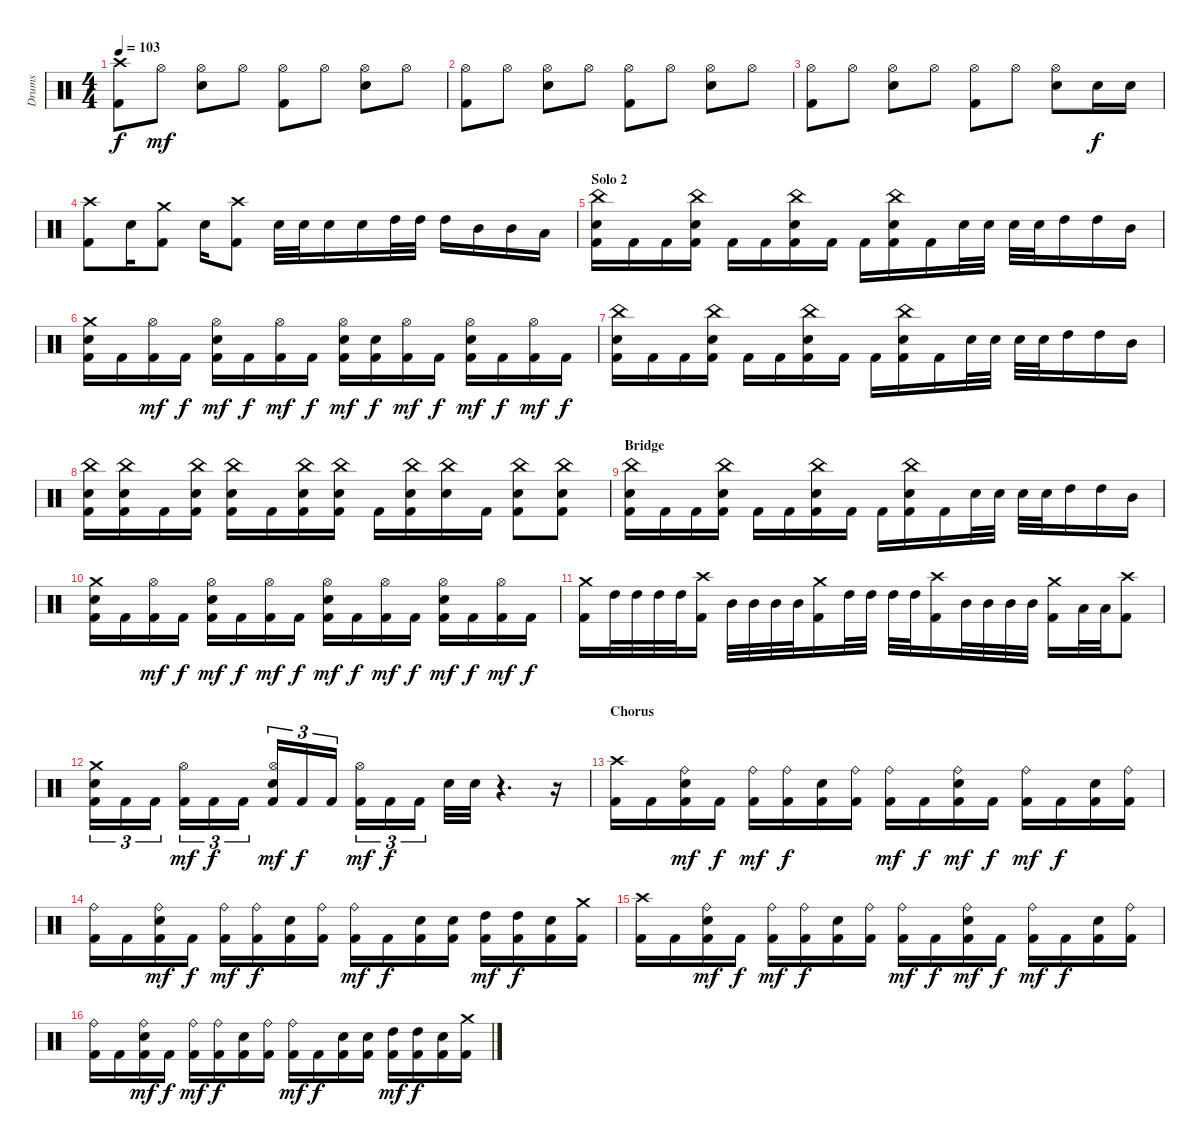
\track ("Drums" "Drums") {instrument percussion}
\staff {score}
\articulation defaults
\ts (4 4)
\tempo 103
\clef neutral
\ks c
("Crash high (hit)" "Kick (hit) 2").8{dy f} "Hi-Hat (open)".8{dy mf} ("Hi-Hat (open)" "Electric Snare (hit)").8 "Hi-Hat (open)".8 ("Hi-Hat (open)" "Kick (hit) 2").8 "Hi-Hat (open)".8 ("Hi-Hat (open)" "Electric Snare (hit)").8 "Hi-Hat (open)".8 |
("Hi-Hat (open)" "Kick (hit) 2").8 "Hi-Hat (open)".8 ("Hi-Hat (open)" "Electric Snare (hit)").8 "Hi-Hat (open)".8 ("Hi-Hat (open)" "Kick (hit) 2").8 "Hi-Hat (open)".8 ("Hi-Hat (open)" "Electric Snare (hit)").8 "Hi-Hat (open)".8 |
("Hi-Hat (open)" "Kick (hit) 2").8 "Hi-Hat (open)".8 ("Hi-Hat (open)" "Electric Snare (hit)").8 "Hi-Hat (open)".8 ("Hi-Hat (open)" "Kick (hit) 2").8 "Hi-Hat (open)".8 ("Hi-Hat (open)" "Electric Snare (hit)").8 "Electric Snare (hit)".16{dy f} "Electric Snare (hit)".16 |
("Crash high (hit)" "Kick (hit) 2").8 "Electric Snare (hit)".16 ("Crash medium (hit)" "Kick (hit) 2").8 "Electric Snare (hit)".16 ("Crash high (hit)" "Kick (hit) 2").8 "Electric Snare (hit)".32 "Electric Snare (hit)".32 "Electric Snare (hit)".16 "Electric Snare (hit)".16 "High Tom (hit)".32 "High Tom (hit)".32 "High Tom (hit)".16 "Mid Tom (hit)".16 "Mid Tom (hit)".16 "Low Tom (hit)".16 |
\section ("" "Solo 2")
("China (hit)" "Electric Snare (hit)" "Kick (hit) 2").16 "Kick (hit) 2".16 "Kick (hit) 2".16 ("China (hit)" "Electric Snare (hit)" "Kick (hit) 2").16 "Kick (hit) 2".16 "Kick (hit) 2".16 ("China (hit)" "Electric Snare (hit)" "Kick (hit) 2").16 "Kick (hit) 2".16 "Kick (hit) 2".16 ("China (hit)" "Electric Snare (hit)" "Kick (hit) 2").16 "Kick (hit) 2".16 "Electric Snare (hit)".32 "Electric Snare (hit)".32 "Electric Snare (hit)".32 "Electric Snare (hit)".32 "High Tom (hit)".16 "High Tom (hit)".16 "Mid Tom (hit)".16 |
("Crash medium (hit)" "Electric Snare (hit)" "Kick (hit) 2").16 "Kick (hit) 2".16 ("Hi-Hat (open)" "Kick (hit) 2").16{dy mf} "Kick (hit) 2".16{dy f} ("Hi-Hat (open)" "Electric Snare (hit)" "Kick (hit) 2").16{dy mf} "Kick (hit) 2".16{dy f} ("Hi-Hat (open)" "Kick (hit) 2").16{dy mf} "Kick (hit) 2".16{dy f} ("Hi-Hat (open)" "Electric Snare (hit)" "Kick (hit) 2").16{dy mf} ("Electric Snare (hit)" "Kick (hit) 2").16{dy f} ("Hi-Hat (open)" "Kick (hit) 2").16{dy mf} "Kick (hit) 2".16{dy f} ("Hi-Hat (open)" "Electric Snare (hit)" "Kick (hit) 2").16{dy mf} "Kick (hit) 2".16{dy f} ("Hi-Hat (open)" "Kick (hit) 2").16{dy mf} "Kick (hit) 2".16{dy f} |
("China (hit)" "Electric Snare (hit)" "Kick (hit) 2").16 "Kick (hit) 2".16 "Kick (hit) 2".16 ("China (hit)" "Electric Snare (hit)" "Kick (hit) 2").16 "Kick (hit) 2".16 "Kick (hit) 2".16 ("China (hit)" "Electric Snare (hit)" "Kick (hit) 2").16 "Kick (hit) 2".16 "Kick (hit) 2".16 ("China (hit)" "Electric Snare (hit)" "Kick (hit) 2").16 "Kick (hit) 2".16 "Electric Snare (hit)".32 "Electric Snare (hit)".32 "Electric Snare (hit)".32 "Electric Snare (hit)".32 "High Tom (hit)".16 "High Tom (hit)".16 "Mid Tom (hit)".16 |
("China (hit)" "Electric Snare (hit)" "Kick (hit) 2").16 ("China (hit)" "Electric Snare (hit)" "Kick (hit) 2").16 "Kick (hit) 2".16 ("China (hit)" "Electric Snare (hit)" "Kick (hit) 2").16 ("China (hit)" "Electric Snare (hit)" "Kick (hit) 2").16 "Kick (hit) 2".16 ("China (hit)" "Electric Snare (hit)" "Kick (hit) 2").16 ("China (hit)" "Electric Snare (hit)" "Kick (hit) 2").16 "Kick (hit) 2".16 ("China (hit)" "Electric Snare (hit)" "Kick (hit) 2").16 ("China (hit)" "Electric Snare (hit)").16 "Kick (hit) 2".16 ("China (hit)" "Electric Snare (hit)" "Kick (hit) 2").8 ("China (hit)" "Electric Snare (hit)" "Kick (hit) 2").8 |
\section ("" "Bridge")
("China (hit)" "Electric Snare (hit)" "Kick (hit) 2").16 "Kick (hit) 2".16 "Kick (hit) 2".16 ("China (hit)" "Electric Snare (hit)" "Kick (hit) 2").16 "Kick (hit) 2".16 "Kick (hit) 2".16 ("China (hit)" "Electric Snare (hit)" "Kick (hit) 2").16 "Kick (hit) 2".16 "Kick (hit) 2".16 ("China (hit)" "Electric Snare (hit)" "Kick (hit) 2").16 "Kick (hit) 2".16 "Electric Snare (hit)".32 "Electric Snare (hit)".32 "Electric Snare (hit)".32 "Electric Snare (hit)".32 "High Tom (hit)".16 "High Tom (hit)".16 "Mid Tom (hit)".16 |
("Crash medium (hit)" "Electric Snare (hit)" "Kick (hit) 2").16 "Kick (hit) 2".16 ("Hi-Hat (open)" "Kick (hit) 2").16{dy mf} "Kick (hit) 2".16{dy f} ("Hi-Hat (open)" "Electric Snare (hit)" "Kick (hit) 2").16{dy mf} "Kick (hit) 2".16{dy f} ("Hi-Hat (open)" "Kick (hit) 2").16{dy mf} "Kick (hit) 2".16{dy f} ("Hi-Hat (open)" "Electric Snare (hit)" "Kick (hit) 2").16{dy mf} "Kick (hit) 2".16{dy f} ("Hi-Hat (open)" "Kick (hit) 2").16{dy mf} "Kick (hit) 2".16{dy f} ("Hi-Hat (open)" "Electric Snare (hit)" "Kick (hit) 2").16{dy mf} "Kick (hit) 2".16{dy f} ("Hi-Hat (open)" "Kick (hit) 2").16{dy mf} "Kick (hit) 2".16{dy f} |
("Crash medium (hit)" "Kick (hit) 2").16 "High Tom (hit)".32 "High Tom (hit)".32 "High Tom (hit)".32 "High Tom (hit)".32 ("Crash high (hit)" "Kick (hit) 2").16 "Mid Tom (hit)".32 "Mid Tom (hit)".32 "Mid Tom (hit)".32 "Mid Tom (hit)".32 ("Crash medium (hit)" "Kick (hit) 2").16 "High Tom (hit)".32 "High Tom (hit)".32 "High Tom (hit)".32 "High Tom (hit)".32 ("Crash high (hit)" "Kick (hit) 2").16 "Mid Tom (hit)".32 "Mid Tom (hit)".32 "Mid Tom (hit)".32 "Mid Tom (hit)".32 ("Crash medium (hit)" "Kick (hit) 2").16 "Low Tom (hit)".32 "Low Tom (hit)".32 ("Crash high (hit)" "Kick (hit) 2").8 |
("Crash medium (hit)" "Electric Snare (hit)" "Kick (hit) 2").16{tu (3 2)} "Kick (hit) 2".16{tu (3 2)} "Kick (hit) 2".16{tu (3 2)} ("Hi-Hat (open)" "Kick (hit) 2").16{tu (3 2) dy mf} "Kick (hit) 2".16{tu (3 2) dy f} "Kick (hit) 2".16{tu (3 2)} ("Hi-Hat (open)" "Electric Snare (hit)" "Kick (hit) 2").16{tu (3 2) dy mf} "Kick (hit) 2".16{tu (3 2) dy f} "Kick (hit) 2".16{tu (3 2)} ("Hi-Hat (open)" "Kick (hit) 2").16{tu (3 2) dy mf} "Kick (hit) 2".16{tu (3 2) dy f} "Kick (hit) 2".16{tu (3 2)} "Electric Snare (hit)".32 "Electric Snare (hit)".32 r.4{d} r.16 |
\section ("" "Chorus")
("Crash high (hit)" "Kick (hit) 2").16 "Kick (hit) 2".16 ("Ride (bell)" "Electric Snare (hit)" "Kick (hit) 2").16{dy mf} "Kick (hit) 2".16{dy f} ("Ride (bell)" "Kick (hit) 2").16{dy mf} ("Ride (bell)" "Kick (hit) 2").16{dy f} ("Electric Snare (hit)" "Kick (hit) 2").16 ("Ride (bell)" "Kick (hit) 2").16 ("Ride (bell)" "Kick (hit) 2").16{dy mf} "Kick (hit) 2".16{dy f} ("Ride (bell)" "Electric Snare (hit)" "Kick (hit) 2").16{dy mf} "Kick (hit) 2".16{dy f} ("Ride (bell)" "Kick (hit) 2").16{dy mf} "Kick (hit) 2".16{dy f} ("Electric Snare (hit)" "Kick (hit) 2").16 ("Ride (bell)" "Kick (hit) 2").16 |
("Ride (bell)" "Kick (hit) 2").16 "Kick (hit) 2".16 ("Ride (bell)" "Electric Snare (hit)" "Kick (hit) 2").16{dy mf} "Kick (hit) 2".16{dy f} ("Ride (bell)" "Kick (hit) 2").16{dy mf} ("Ride (bell)" "Kick (hit) 2").16{dy f} ("Electric Snare (hit)" "Kick (hit) 2").16 ("Ride (bell)" "Kick (hit) 2").16 ("Ride (bell)" "Kick (hit) 2").16{dy mf} "Kick (hit) 2".16{dy f} ("Electric Snare (hit)" "Kick (hit) 2").16 ("Electric Snare (hit)" "Kick (hit) 2").16 ("High Tom (hit)" "Kick (hit) 2").16{dy mf} ("High Tom (hit)" "Kick (hit) 2").16{dy f} ("Electric Snare (hit)" "Kick (hit) 2").16 ("Crash medium (hit)" "Kick (hit) 2").16 |
("Crash high (hit)" "Kick (hit) 2").16 "Kick (hit) 2".16 ("Ride (bell)" "Electric Snare (hit)" "Kick (hit) 2").16{dy mf} "Kick (hit) 2".16{dy f} ("Ride (bell)" "Kick (hit) 2").16{dy mf} ("Ride (bell)" "Kick (hit) 2").16{dy f} ("Electric Snare (hit)" "Kick (hit) 2").16 ("Ride (bell)" "Kick (hit) 2").16 ("Ride (bell)" "Kick (hit) 2").16{dy mf} "Kick (hit) 2".16{dy f} ("Ride (bell)" "Electric Snare (hit)" "Kick (hit) 2").16{dy mf} "Kick (hit) 2".16{dy f} ("Ride (bell)" "Kick (hit) 2").16{dy mf} "Kick (hit) 2".16{dy f} ("Electric Snare (hit)" "Kick (hit) 2").16 ("Ride (bell)" "Kick (hit) 2").16 |
("Ride (bell)" "Kick (hit) 2").16 "Kick (hit) 2".16 ("Ride (bell)" "Electric Snare (hit)" "Kick (hit) 2").16{dy mf} "Kick (hit) 2".16{dy f} ("Ride (bell)" "Kick (hit) 2").16{dy mf} ("Ride (bell)" "Kick (hit) 2").16{dy f} ("Electric Snare (hit)" "Kick (hit) 2").16 ("Ride (bell)" "Kick (hit) 2").16 ("Ride (bell)" "Kick (hit) 2").16{dy mf} "Kick (hit) 2".16{dy f} ("Electric Snare (hit)" "Kick (hit) 2").16 ("Electric Snare (hit)" "Kick (hit) 2").16 ("High Tom (hit)" "Kick (hit) 2").16{dy mf} ("High Tom (hit)" "Kick (hit) 2").16{dy f} ("Electric Snare (hit)" "Kick (hit) 2").16 ("Crash medium (hit)" "Kick (hit) 2").16
